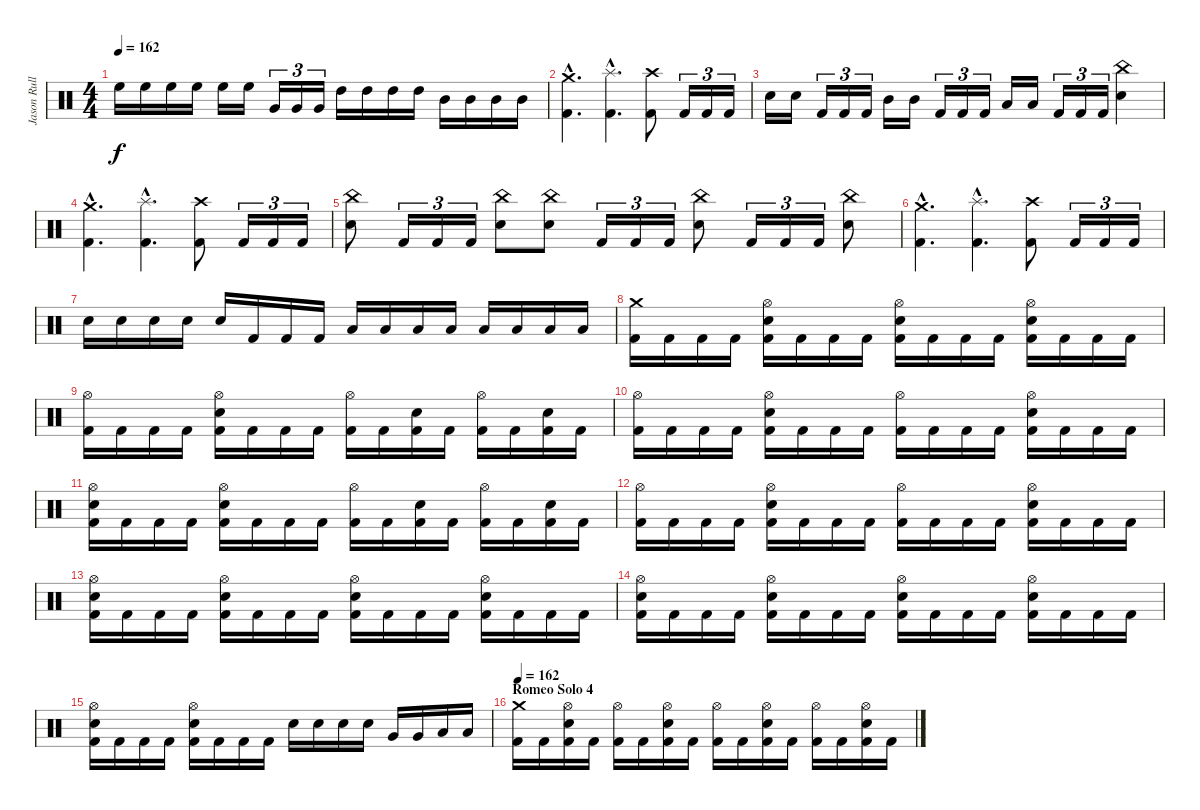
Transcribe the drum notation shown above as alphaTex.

\track ("Jason Rullo" "Jason Rull") {instrument percussion}
\staff {score}
\articulation defaults
\ts (4 4)
\tempo 162
\clef neutral
\ks c "High Floor Tom (hit)".16{dy f} "High Floor Tom (hit)".16 "High Floor Tom (hit)".16 "High Floor Tom (hit)".16 "High Floor Tom (hit)".16 "High Floor Tom (hit)".16 "Very Low Tom (hit)".16{tu (3 2)} "Very Low Tom (hit)".16{tu (3 2)} "Very Low Tom (hit)".16{tu (3 2)} "High Tom (hit)".16 "High Tom (hit)".16 "High Tom (hit)".16 "High Tom (hit)".16 "Mid Tom (hit)".16 "Mid Tom (hit)".16 "Mid Tom (hit)".16 "Mid Tom (hit)".16
|
("Crash medium (hit)" "Kick (hit) 2"{hac}).4{d} ("Splash (hit)"{hac} "Kick (hit) 2"{hac}).4{d} ("Crash high (hit)" "Kick (hit) 2").8 "Kick (hit) 2".16{tu (3 2)} "Kick (hit) 2".16{tu (3 2)} "Kick (hit) 2".16{tu (3 2)} |
"Electric Snare (hit)".16 "Electric Snare (hit)".16 "Kick (hit) 2".16{tu (3 2)} "Kick (hit) 2".16{tu (3 2)} "Kick (hit) 2".16{tu (3 2)} "Mid Tom (hit)".16 "Mid Tom (hit)".16 "Kick (hit) 2".16{tu (3 2)} "Kick (hit) 2".16{tu (3 2)} "Kick (hit) 2".16{tu (3 2)} "Low Tom (hit)".16 "Low Tom (hit)".16 "Kick (hit) 2".16{tu (3 2)} "Kick (hit) 2".16{tu (3 2)} "Kick (hit) 2".16{tu (3 2)} ("China (hit)" "Electric Snare (hit)").4 |
("Crash medium (hit)" "Kick (hit) 2"{hac}).4{d} ("Splash (hit)"{hac} "Kick (hit) 2"{hac}).4{d} ("Crash high (hit)" "Kick (hit) 2").8 "Kick (hit) 2".16{tu (3 2)} "Kick (hit) 2".16{tu (3 2)} "Kick (hit) 2".16{tu (3 2)} |
("China (hit)" "Electric Snare (hit)").8 "Kick (hit) 2".16{tu (3 2)} "Kick (hit) 2".16{tu (3 2)} "Kick (hit) 2".16{tu (3 2)} ("China (hit)" "Electric Snare (hit)").8 ("China (hit)" "Electric Snare (hit)").8 "Kick (hit) 2".16{tu (3 2)} "Kick (hit) 2".16{tu (3 2)} "Kick (hit) 2".16{tu (3 2)} ("China (hit)" "Electric Snare (hit)").8 "Kick (hit) 2".16{tu (3 2)} "Kick (hit) 2".16{tu (3 2)} "Kick (hit) 2".16{tu (3 2)} ("China (hit)" "Electric Snare (hit)").8 |
("Crash medium (hit)" "Kick (hit) 2"{hac}).4{d} ("Splash (hit)"{hac} "Kick (hit) 2"{hac}).4{d} ("Crash high (hit)" "Kick (hit) 2").8 "Kick (hit) 2".16{tu (3 2)} "Kick (hit) 2".16{tu (3 2)} "Kick (hit) 2".16{tu (3 2)} |
"Electric Snare (hit)".16 "Electric Snare (hit)".16 "Electric Snare (hit)".16 "Electric Snare (hit)".16 "Electric Snare (hit)".16 "Kick (hit) 2".16 "Kick (hit) 2".16 "Kick (hit) 2".16 "Low Tom (hit)".16 "Low Tom (hit)".16 "Low Tom (hit)".16 "Low Tom (hit)".16 "Low Tom (hit)".16 "Low Floor Tom (hit)".16 "Low Floor Tom (hit)".16 "Low Floor Tom (hit)".16 |
("Kick (hit) 2" "Crash medium (hit)").16 "Kick (hit) 2".16 "Kick (hit) 2".16 "Kick (hit) 2".16 ("Electric Snare (hit)" "Kick (hit) 2" "Hi-Hat (open)").16 "Kick (hit) 2".16 "Kick (hit) 2".16 "Kick (hit) 2".16 ("Electric Snare (hit)" "Kick (hit) 2" "Hi-Hat (open)").16 "Kick (hit) 2".16 "Kick (hit) 2".16 "Kick (hit) 2".16 ("Electric Snare (hit)" "Kick (hit) 2" "Hi-Hat (open)").16 "Kick (hit) 2".16 "Kick (hit) 2".16 "Kick (hit) 2".16 |
("Hi-Hat (open)" "Kick (hit) 2").16 "Kick (hit) 2".16 "Kick (hit) 2".16 "Kick (hit) 2".16 ("Electric Snare (hit)" "Kick (hit) 2" "Hi-Hat (open)").16 "Kick (hit) 2".16 "Kick (hit) 2".16 "Kick (hit) 2".16 ("Kick (hit) 2" "Hi-Hat (open)").16 "Kick (hit) 2".16 ("Electric Snare (hit)" "Kick (hit) 2").16 "Kick (hit) 2".16 ("Kick (hit) 2" "Hi-Hat (open)").16 "Kick (hit) 2".16 ("Electric Snare (hit)" "Kick (hit) 2").16 "Kick (hit) 2".16 |
("Hi-Hat (open)" "Kick (hit) 2").16 "Kick (hit) 2".16 "Kick (hit) 2".16 "Kick (hit) 2".16 ("Electric Snare (hit)" "Kick (hit) 2" "Hi-Hat (open)").16 "Kick (hit) 2".16 "Kick (hit) 2".16 "Kick (hit) 2".16 ("Kick (hit) 2" "Hi-Hat (open)").16 "Kick (hit) 2".16 "Kick (hit) 2".16 "Kick (hit) 2".16 ("Electric Snare (hit)" "Kick (hit) 2" "Hi-Hat (open)").16 "Kick (hit) 2".16 "Kick (hit) 2".16 "Kick (hit) 2".16 |
("Electric Snare (hit)" "Hi-Hat (open)" "Kick (hit) 2").16 "Kick (hit) 2".16 "Kick (hit) 2".16 "Kick (hit) 2".16 ("Electric Snare (hit)" "Kick (hit) 2" "Hi-Hat (open)").16 "Kick (hit) 2".16 "Kick (hit) 2".16 "Kick (hit) 2".16 ("Kick (hit) 2" "Hi-Hat (open)").16 "Kick (hit) 2".16 ("Electric Snare (hit)" "Kick (hit) 2").16 "Kick (hit) 2".16 ("Kick (hit) 2" "Hi-Hat (open)").16 "Kick (hit) 2".16 ("Electric Snare (hit)" "Kick (hit) 2").16 "Kick (hit) 2".16 |
("Hi-Hat (open)" "Kick (hit) 2").16 "Kick (hit) 2".16 "Kick (hit) 2".16 "Kick (hit) 2".16 ("Electric Snare (hit)" "Kick (hit) 2" "Hi-Hat (open)").16 "Kick (hit) 2".16 "Kick (hit) 2".16 "Kick (hit) 2".16 ("Kick (hit) 2" "Hi-Hat (open)").16 "Kick (hit) 2".16 "Kick (hit) 2".16 "Kick (hit) 2".16 ("Electric Snare (hit)" "Kick (hit) 2" "Hi-Hat (open)").16 "Kick (hit) 2".16 "Kick (hit) 2".16 "Kick (hit) 2".16 |
("Electric Snare (hit)" "Hi-Hat (open)" "Kick (hit) 2").16 "Kick (hit) 2".16 "Kick (hit) 2".16 "Kick (hit) 2".16 ("Electric Snare (hit)" "Kick (hit) 2" "Hi-Hat (open)").16 "Kick (hit) 2".16 "Kick (hit) 2".16 "Kick (hit) 2".16 ("Electric Snare (hit)" "Kick (hit) 2" "Hi-Hat (open)").16 "Kick (hit) 2".16 "Kick (hit) 2".16 "Kick (hit) 2".16 ("Electric Snare (hit)" "Kick (hit) 2" "Hi-Hat (open)").16 "Kick (hit) 2".16 "Kick (hit) 2".16 "Kick (hit) 2".16 |
("Electric Snare (hit)" "Hi-Hat (open)" "Kick (hit) 2").16 "Kick (hit) 2".16 "Kick (hit) 2".16 "Kick (hit) 2".16 ("Electric Snare (hit)" "Kick (hit) 2" "Hi-Hat (open)").16 "Kick (hit) 2".16 "Kick (hit) 2".16 "Kick (hit) 2".16 ("Electric Snare (hit)" "Kick (hit) 2" "Hi-Hat (open)").16 "Kick (hit) 2".16 "Kick (hit) 2".16 "Kick (hit) 2".16 ("Electric Snare (hit)" "Kick (hit) 2" "Hi-Hat (open)").16 "Kick (hit) 2".16 "Kick (hit) 2".16 "Kick (hit) 2".16 |
("Electric Snare (hit)" "Hi-Hat (open)" "Kick (hit) 2").16 "Kick (hit) 2".16 "Kick (hit) 2".16 "Kick (hit) 2".16 ("Electric Snare (hit)" "Kick (hit) 2" "Hi-Hat (open)").16 "Kick (hit) 2".16 "Kick (hit) 2".16 "Kick (hit) 2".16 "Electric Snare (hit)".16 "Electric Snare (hit)".16 "Electric Snare (hit)".16 "Electric Snare (hit)".16 "Very Low Tom (hit)".16 "Very Low Tom (hit)".16 "Low Floor Tom (hit)".16 "Low Floor Tom (hit)".16 |
\section ("" "Romeo Solo 4")
\tempo 162
("Kick (hit) 2" "Crash medium (hit)").16 "Kick (hit) 2".16 ("Kick (hit) 2" "Electric Snare (hit)" "Hi-Hat (open)").16 "Kick (hit) 2".16 ("Kick (hit) 2" "Hi-Hat (open)").16 "Kick (hit) 2".16 ("Kick (hit) 2" "Electric Snare (hit)" "Hi-Hat (open)").16 "Kick (hit) 2".16 ("Kick (hit) 2" "Hi-Hat (open)").16 "Kick (hit) 2".16 ("Kick (hit) 2" "Electric Snare (hit)" "Hi-Hat (open)").16 "Kick (hit) 2".16 ("Kick (hit) 2" "Hi-Hat (open)").16 "Kick (hit) 2".16 ("Kick (hit) 2" "Electric Snare (hit)" "Hi-Hat (open)").16 "Kick (hit) 2".16
